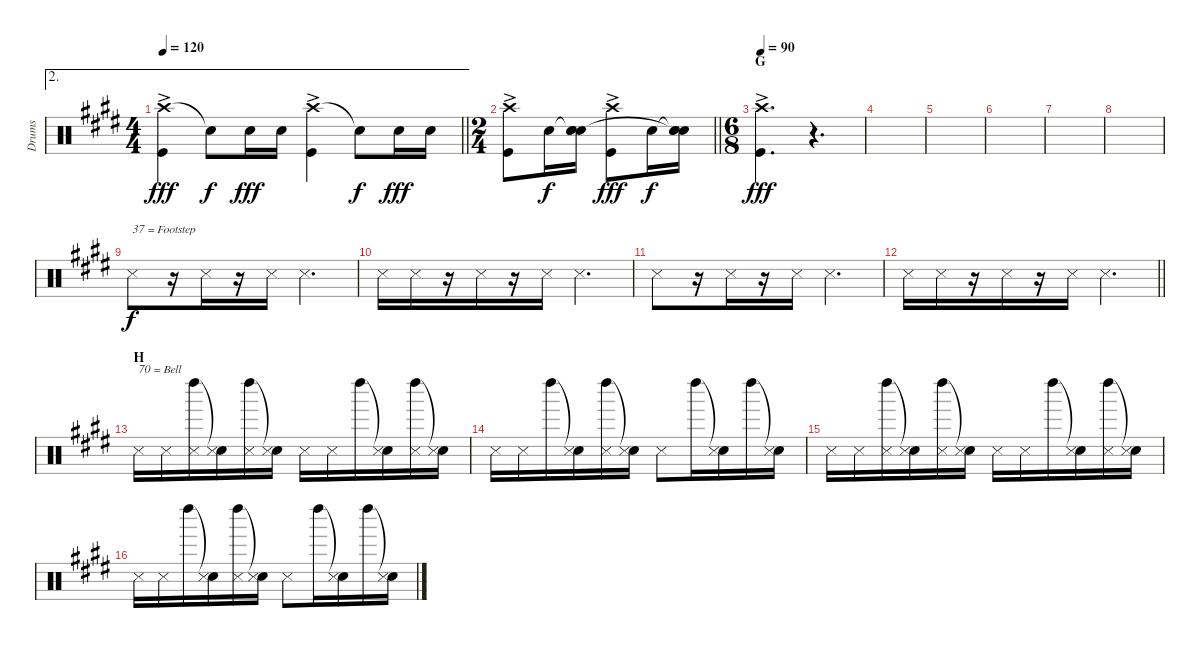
\track ("Drums" "Drums") {instrument percussion}
\staff {score}
\articulation defaults
\ae 2
\ts (4 4)
\tempo 120
\clef neutral
\barLineRight lightlight
\ks e
("Crash high (hit)"{ac} "Kick (hit)").4{dy fff} "Snare (hit)"{t}.8{dy f} "Snare (hit) 2".16{dy fff} "Snare (hit) 2".16 ("Crash high (hit)"{ac} "Kick (hit)").4 "Snare (hit)"{t}.8{dy f} "Snare (hit) 2".16{dy fff} "Snare (hit) 2".16 |
\ts (2 4)
\barLineRight lightlight
("Crash high (hit)"{ac} "Kick (hit)").8 "Snare (hit) 2".16{dy f} ("Snare (hit)"{t} "Snare (hit) 2" "Snare (hit)"{t}).16 ("Crash high (hit)"{ac} "Kick (hit)").8{dy fff} "Snare (hit) 2".16{dy f} ("Snare (hit)"{t} "Snare (hit) 2" "Snare (hit)"{t}).16 |
\ts (6 8)
\section ("" "G")
\tempo 90
("Crash high (hit)"{ac} "Kick (hit)").4{d dy fff} r.4{d} |
|
|
|
|
|
"Snare (side stick) 3".8{txt "37 = Footstep" dy f} r.16 "Snare (side stick) 3".16 r.16 "Snare (side stick) 3".16 "Snare (side stick) 3".4{d} |
"Snare (side stick) 3".16 "Snare (side stick) 3".16 r.16 "Snare (side stick) 3".16 r.16 "Snare (side stick) 3".16 "Snare (side stick) 3".4{d} |
"Snare (side stick) 3".8 r.16 "Snare (side stick) 3".16 r.16 "Snare (side stick) 3".16 "Snare (side stick) 3".4{d} |
\barLineRight lightlight "Snare (side stick) 3".16 "Snare (side stick) 3".16
r.16 "Snare (side stick) 3".16 r.16 "Snare (side stick) 3".16 "Snare (side stick) 3".4{d} |
\section ("" "H")
"Snare (side stick) 3".16{txt "70 = Bell"} "Snare (side stick) 3".16 ("Left Maraca (hit)" "Snare (side stick) 3").16 ("Snare (hit)"{t} "Snare (side stick) 3").16 ("Left Maraca (hit)" "Snare (side stick) 3").16 ("Snare (hit)"{t} "Snare (side stick) 3").16 "Snare (side stick) 3".16 "Snare (side stick) 3".16 "Left Maraca (hit)".16 ("Snare (hit)"{t} "Snare (side stick) 3").16 ("Left Maraca (hit)" "Snare (side stick) 3").16 ("Snare (hit)"{t} "Snare (side stick) 3").16 |
"Snare (side stick) 3".16 "Snare (side stick) 3".16 "Left Maraca (hit)".16 ("Snare (hit)"{t} "Snare (side stick) 3").16 ("Left Maraca (hit)" "Snare (side stick) 3").16 ("Snare (hit)"{t} "Snare (side stick) 3").16 "Snare (side stick) 3".8 "Left Maraca (hit)".16 ("Snare (hit)"{t} "Snare (side stick) 3").16 "Left Maraca (hit)".16 ("Snare (hit)"{t} "Snare (side stick) 3").16 |
"Snare (side stick) 3".16 "Snare (side stick) 3".16 ("Left Maraca (hit)" "Snare (side stick) 3").16 ("Snare (hit)"{t} "Snare (side stick) 3").16 ("Left Maraca (hit)" "Snare (side stick) 3").16 ("Snare (hit)"{t} "Snare (side stick) 3").16 "Snare (side stick) 3".16 "Snare (side stick) 3".16 "Left Maraca (hit)".16 ("Snare (hit)"{t} "Snare (side stick) 3").16 ("Left Maraca (hit)" "Snare (side stick) 3").16 ("Snare (hit)"{t} "Snare (side stick) 3").16 |
"Snare (side stick) 3".16 "Snare (side stick) 3".16 "Left Maraca (hit)".16 ("Snare (hit)"{t} "Snare (side stick) 3").16 ("Left Maraca (hit)" "Snare (side stick) 3").16 ("Snare (hit)"{t} "Snare (side stick) 3").16 "Snare (side stick) 3".8 "Left Maraca (hit)".16 ("Snare (hit)"{t} "Snare (side stick) 3").16 "Left Maraca (hit)".16 ("Snare (hit)"{t} "Snare (side stick) 3").16
